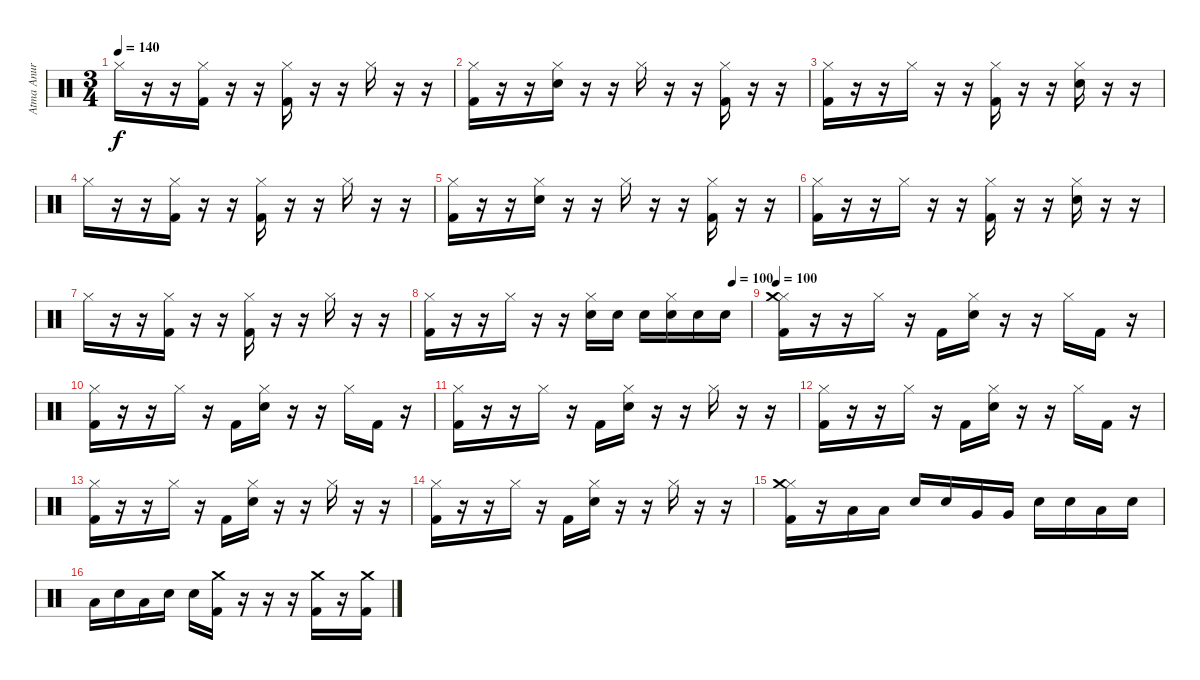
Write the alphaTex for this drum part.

\track ("Atma Anur" "Atma Anur") {instrument percussion}
\staff {score}
\articulation defaults
\ts (3 4)
\tempo 140
\clef neutral
\ks c "Hi-Hat (closed)".16{dy f}
r.16 r.16 ("Hi-Hat (closed)" "Kick (hit) 2").16 r.16 r.16 ("Hi-Hat (closed)" "Kick (hit) 2").16 r.16 r.16 "Hi-Hat (closed)".16 r.16 r.16 |
("Hi-Hat (closed)" "Kick (hit) 2").16 r.16 r.16 ("Hi-Hat (closed)" "Snare (hit) 2").16 r.16 r.16 "Hi-Hat (closed)".16 r.16 r.16 ("Hi-Hat (closed)" "Kick (hit) 2").16 r.16 r.16 |
("Hi-Hat (closed)" "Kick (hit) 2").16 r.16 r.16 "Hi-Hat (closed)".16 r.16 r.16 ("Hi-Hat (closed)" "Kick (hit) 2").16 r.16 r.16 ("Hi-Hat (closed)" "Snare (hit) 2").16 r.16 r.16 |
"Hi-Hat (closed)".16 r.16 r.16 ("Hi-Hat (closed)" "Kick (hit) 2").16 r.16 r.16 ("Hi-Hat (closed)" "Kick (hit) 2").16 r.16 r.16 "Hi-Hat (closed)".16 r.16 r.16 |
("Hi-Hat (closed)" "Kick (hit) 2").16 r.16 r.16 ("Hi-Hat (closed)" "Snare (hit) 2").16 r.16 r.16 "Hi-Hat (closed)".16 r.16 r.16 ("Hi-Hat (closed)" "Kick (hit) 2").16 r.16 r.16 |
("Hi-Hat (closed)" "Kick (hit) 2").16 r.16 r.16 "Hi-Hat (closed)".16 r.16 r.16 ("Hi-Hat (closed)" "Kick (hit) 2").16 r.16 r.16 ("Hi-Hat (closed)" "Snare (hit) 2").16 r.16 r.16 |
"Hi-Hat (closed)".16 r.16 r.16 ("Hi-Hat (closed)" "Kick (hit) 2").16 r.16 r.16 ("Hi-Hat (closed)" "Kick (hit) 2").16 r.16 r.16 "Hi-Hat (closed)".16 r.16 r.16 |
\tempo (100 0.9444444444444444)
("Hi-Hat (closed)" "Kick (hit) 2").16 r.16 r.16 "Hi-Hat (closed)".16 r.16 r.16 ("Hi-Hat (closed)" "Snare (hit) 2").16 "Snare (hit) 2".16 "Snare (hit) 2".16 ("Hi-Hat (closed)" "Snare (hit) 2").16 "Snare (hit) 2".16 "Snare (hit) 2".16 |
\tempo 100
("Hi-Hat (closed)" "Crash medium (hit)" "Kick (hit) 2").16 r.16 r.16 "Hi-Hat (closed)".16 r.16 "Kick (hit) 2".16 ("Hi-Hat (closed)" "Snare (hit) 2").16 r.16 r.16 "Hi-Hat (closed)".16 "Kick (hit) 2".16 r.16 |
("Hi-Hat (closed)" "Kick (hit) 2").16 r.16 r.16 "Hi-Hat (closed)".16 r.16 "Kick (hit) 2".16 ("Hi-Hat (closed)" "Snare (hit) 2").16 r.16 r.16 "Hi-Hat (closed)".16 "Kick (hit) 2".16 r.16 |
("Hi-Hat (closed)" "Kick (hit) 2").16 r.16 r.16 "Hi-Hat (closed)".16 r.16 "Kick (hit) 2".16 ("Hi-Hat (closed)" "Snare (hit) 2").16 r.16 r.16 "Hi-Hat (closed)".16 r.16 r.16 |
("Hi-Hat (closed)" "Kick (hit) 2").16 r.16 r.16 "Hi-Hat (closed)".16 r.16 "Kick (hit) 2".16 ("Hi-Hat (closed)" "Snare (hit) 2").16 r.16 r.16 "Hi-Hat (closed)".16 "Kick (hit) 2".16 r.16 |
("Hi-Hat (closed)" "Kick (hit) 2").16 r.16 r.16 "Hi-Hat (closed)".16 r.16 "Kick (hit) 2".16 ("Hi-Hat (closed)" "Snare (hit) 2").16 r.16 r.16 "Hi-Hat (closed)".16 r.16 r.16 |
("Hi-Hat (closed)" "Kick (hit) 2").16 r.16 r.16 "Hi-Hat (closed)".16 r.16 "Kick (hit) 2".16 ("Hi-Hat (closed)" "Snare (hit) 2").16 r.16 r.16 "Hi-Hat (closed)".16 r.16 r.16 |
("Hi-Hat (closed)" "Crash medium (hit)" "Kick (hit) 2").16 r.16 "Low Tom (hit)".16 "Low Tom (hit)".16 "Snare (hit) 2".16 "Snare (hit) 2".16 "Very Low Tom (hit)".16 "Very Low Tom (hit)".16 "Snare (hit) 2".16 "Snare (hit) 2".16 "Low Floor Tom (hit)".16 "Snare (hit) 2".16 |
"Low Floor Tom (hit)".16 "Snare (hit) 2".16 "Low Floor Tom (hit)".16 "Snare (hit) 2".16 "Snare (hit) 2".16 ("Crash medium (hit)" "Kick (hit) 2").16 r.16 r.16 r.16 ("Crash medium (hit)" "Kick (hit) 2").16 r.16 ("Crash medium (hit)" "Kick (hit) 2").16
